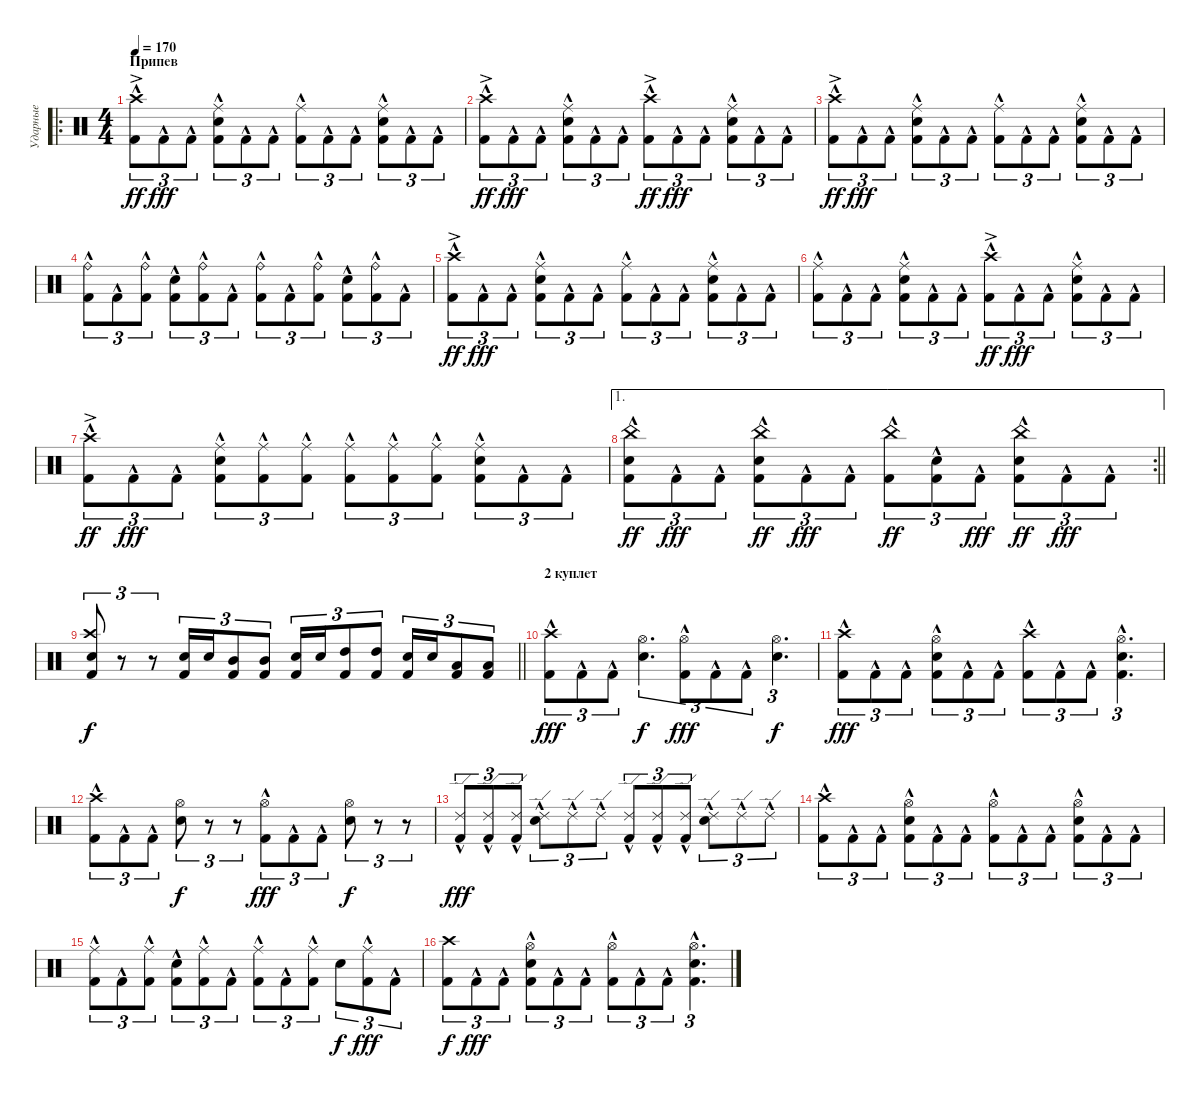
\track ("Ударные" "Ударные") {instrument percussion}
\staff {score}
\articulation defaults
\ro
\ts (4 4)
\section ("" "Припев")
\tempo 170
\clef neutral
\ks c
("Kick (hit) 2"{hac} "Crash high (hit)"{ac}).8{tu (3 2) dy ff} "Kick (hit) 2"{hac}.8{tu (3 2) dy fff} "Kick (hit) 2"{hac}.8{tu (3 2)} ("Kick (hit) 2"{hac} "Snare (hit) 2" "Ride (middle)"{hac}).8{tu (3 2)} "Kick (hit) 2"{hac}.8{tu (3 2)} "Kick (hit) 2"{hac}.8{tu (3 2)} ("Kick (hit) 2"{hac} "Ride (middle)"{hac}).8{tu (3 2)} "Kick (hit) 2"{hac}.8{tu (3 2)} "Kick (hit) 2"{hac}.8{tu (3 2)} ("Kick (hit) 2"{hac} "Snare (hit) 2" "Ride (middle)"{hac}).8{tu (3 2)} "Kick (hit) 2"{hac}.8{tu (3 2)} "Kick (hit) 2"{hac}.8{tu (3 2)} |
("Kick (hit) 2"{hac} "Crash high (hit)"{ac}).8{tu (3 2) dy ff} "Kick (hit) 2"{hac}.8{tu (3 2) dy fff} "Kick (hit) 2"{hac}.8{tu (3 2)} ("Kick (hit) 2"{hac} "Snare (hit) 2" "Ride (middle)"{hac}).8{tu (3 2)} "Kick (hit) 2"{hac}.8{tu (3 2)} "Kick (hit) 2"{hac}.8{tu (3 2)} ("Kick (hit) 2"{hac} "Crash high (hit)"{ac}).8{tu (3 2) dy ff} "Kick (hit) 2"{hac}.8{tu (3 2) dy fff} "Kick (hit) 2"{hac}.8{tu (3 2)} ("Kick (hit) 2"{hac} "Snare (hit) 2" "Ride (middle)"{hac}).8{tu (3 2)} "Kick (hit) 2"{hac}.8{tu (3 2)} "Kick (hit) 2"{hac}.8{tu (3 2)} |
("Kick (hit) 2"{hac} "Crash high (hit)"{ac}).8{tu (3 2) dy ff} "Kick (hit) 2"{hac}.8{tu (3 2) dy fff} "Kick (hit) 2"{hac}.8{tu (3 2)} ("Kick (hit) 2"{hac} "Snare (hit) 2" "Ride (middle)"{hac}).8{tu (3 2)} "Kick (hit) 2"{hac}.8{tu (3 2)} "Kick (hit) 2"{hac}.8{tu (3 2)} ("Kick (hit) 2"{hac} "Ride (middle)"{hac}).8{tu (3 2)} "Kick (hit) 2"{hac}.8{tu (3 2)} "Kick (hit) 2"{hac}.8{tu (3 2)} ("Kick (hit) 2"{hac} "Snare (hit) 2" "Ride (middle)"{hac}).8{tu (3 2)} "Kick (hit) 2"{hac}.8{tu (3 2)} "Kick (hit) 2"{hac}.8{tu (3 2)} |
("Kick (hit) 2"{hac} "Ride (bell)"{hac}).8{tu (3 2)} "Kick (hit) 2"{hac}.8{tu (3 2)} ("Kick (hit) 2"{hac} "Ride (bell)"{hac}).8{tu (3 2)} ("Kick (hit) 2"{hac} "Snare (hit) 2").8{tu (3 2)} ("Kick (hit) 2"{hac} "Ride (bell)"{hac}).8{tu (3 2)} "Kick (hit) 2"{hac}.8{tu (3 2)} ("Kick (hit) 2"{hac} "Ride (bell)"{hac}).8{tu (3 2)} "Kick (hit) 2"{hac}.8{tu (3 2)} ("Kick (hit) 2"{hac} "Ride (bell)"{hac}).8{tu (3 2)} ("Kick (hit) 2"{hac} "Snare (hit) 2").8{tu (3 2)} ("Kick (hit) 2"{hac} "Ride (bell)"{hac}).8{tu (3 2)} "Kick (hit) 2"{hac}.8{tu (3 2)} |
("Kick (hit) 2"{hac} "Crash high (hit)"{ac}).8{tu (3 2) dy ff} "Kick (hit) 2"{hac}.8{tu (3 2) dy fff} "Kick (hit) 2"{hac}.8{tu (3 2)} ("Kick (hit) 2"{hac} "Snare (hit) 2" "Ride (middle)"{hac}).8{tu (3 2)} "Kick (hit) 2"{hac}.8{tu (3 2)} "Kick (hit) 2"{hac}.8{tu (3 2)} ("Kick (hit) 2"{hac} "Ride (middle)"{hac}).8{tu (3 2)} "Kick (hit) 2"{hac}.8{tu (3 2)} "Kick (hit) 2"{hac}.8{tu (3 2)} ("Kick (hit) 2"{hac} "Snare (hit) 2" "Ride (middle)"{hac}).8{tu (3 2)} "Kick (hit) 2"{hac}.8{tu (3 2)} "Kick (hit) 2"{hac}.8{tu (3 2)} |
("Kick (hit) 2"{hac} "Ride (middle)"{hac}).8{tu (3 2)} "Kick (hit) 2"{hac}.8{tu (3 2)} "Kick (hit) 2"{hac}.8{tu (3 2)} ("Kick (hit) 2"{hac} "Snare (hit) 2" "Ride (middle)"{hac}).8{tu (3 2)} "Kick (hit) 2"{hac}.8{tu (3 2)} "Kick (hit) 2"{hac}.8{tu (3 2)} ("Kick (hit) 2"{hac} "Crash high (hit)"{ac}).8{tu (3 2) dy ff} "Kick (hit) 2"{hac}.8{tu (3 2) dy fff} "Kick (hit) 2"{hac}.8{tu (3 2)} ("Kick (hit) 2"{hac} "Snare (hit) 2" "Ride (middle)"{hac}).8{tu (3 2)} "Kick (hit) 2"{hac}.8{tu (3 2)} "Kick (hit) 2"{hac}.8{tu (3 2)} |
("Kick (hit) 2"{hac} "Crash high (hit)"{ac}).8{tu (3 2) dy ff} "Kick (hit) 2"{hac}.8{tu (3 2) dy fff} "Kick (hit) 2"{hac}.8{tu (3 2)} ("Kick (hit) 2"{hac} "Snare (hit) 2" "Ride (middle)"{hac}).8{tu (3 2)} ("Kick (hit) 2"{hac} "Ride (middle)"{hac}).8{tu (3 2)} ("Kick (hit) 2"{hac} "Ride (middle)"{hac}).8{tu (3 2)} ("Kick (hit) 2"{hac} "Ride (middle)"{hac}).8{tu (3 2)} ("Kick (hit) 2"{hac} "Ride (middle)"{hac}).8{tu (3 2)} ("Kick (hit) 2"{hac} "Ride (middle)"{hac}).8{tu (3 2)} ("Kick (hit) 2"{hac} "Snare (hit) 2" "Ride (middle)"{hac}).8{tu (3 2)} "Kick (hit) 2"{hac}.8{tu (3 2)} "Kick (hit) 2"{hac}.8{tu (3 2)} |
\ae 1
\rc 2
\barLineRight lightlight
("Kick (hit) 2"{hac} "Snare (hit) 2" "China (hit)").8{tu (3 2) dy ff} "Kick (hit) 2"{hac}.8{tu (3 2) dy fff} "Kick (hit) 2"{hac}.8{tu (3 2)} ("Kick (hit) 2"{hac} "Snare (hit) 2" "China (hit)").8{tu (3 2) dy ff} "Kick (hit) 2"{hac}.8{tu (3 2) dy fff} "Kick (hit) 2"{hac}.8{tu (3 2)} ("Kick (hit) 2"{hac} "China (hit)").8{tu (3 2) dy ff} ("Kick (hit) 2"{hac} "Snare (hit) 2").8{tu (3 2)} "Kick (hit) 2"{hac}.8{tu (3 2) dy fff} ("Kick (hit) 2"{hac} "Snare (hit) 2" "China (hit)").8{tu (3 2) dy ff} "Kick (hit) 2"{hac}.8{tu (3 2) dy fff} "Kick (hit) 2"{hac}.8{tu (3 2)} |
\barLineRight lightlight
("Kick (hit) 2" "Snare (hit) 2" "Crash high (hit)").8{tu (3 2) dy f} r.8{tu (3 2)} r.8{tu (3 2)} ("Electric Snare (hit)" "Kick (hit) 2").16{tu (3 2)} "Electric Snare (hit)".16{tu (3 2)} ("Mid Tom (hit)" "Kick (hit) 2").8{tu (3 2)} ("Mid Tom (hit)" "Kick (hit) 2").8{tu (3 2)} ("Electric Snare (hit)" "Kick (hit) 2").16{tu (3 2)} "Electric Snare (hit)".16{tu (3 2)} ("High Tom (hit)" "Kick (hit) 2").8{tu (3 2)} ("High Tom (hit)" "Kick (hit) 2").8{tu (3 2)} ("Electric Snare (hit)" "Kick (hit) 2").16{tu (3 2)} "Electric Snare (hit)".16{tu (3 2)} ("Low Tom (hit)" "Kick (hit) 2").8{tu (3 2)} ("Low Tom (hit)" "Kick (hit) 2").8{tu (3 2)} |
\section ("" "2 куплет")
("Kick (hit) 2"{hac} "Crash high (hit)").8{tu (3 2) dy fff} "Kick (hit) 2"{hac}.8{tu (3 2)} "Kick (hit) 2"{hac}.8{tu (3 2)} ("Snare (hit) 2" "Hi-Hat (open)").4{d tu (3 2) dy f} ("Kick (hit) 2"{hac} "Hi-Hat (open)").8{tu (3 2) dy fff} "Kick (hit) 2"{hac}.8{tu (3 2)} "Kick (hit) 2"{hac}.8{tu (3 2)} ("Snare (hit) 2" "Hi-Hat (open)").4{d tu (3 2) dy f} |
("Kick (hit) 2"{hac} "Crash high (hit)").8{tu (3 2) dy fff} "Kick (hit) 2"{hac}.8{tu (3 2)} "Kick (hit) 2"{hac}.8{tu (3 2)} ("Kick (hit) 2"{hac} "Snare (hit) 2" "Hi-Hat (open)").8{tu (3 2)} "Kick (hit) 2"{hac}.8{tu (3 2)} "Kick (hit) 2"{hac}.8{tu (3 2)} ("Kick (hit) 2"{hac} "Crash high (hit)").8{tu (3 2)} "Kick (hit) 2"{hac}.8{tu (3 2)} "Kick (hit) 2"{hac}.8{tu (3 2)} ("Kick (hit) 2"{hac} "Snare (hit) 2" "Hi-Hat (open)").4{d tu (3 2)} |
("Kick (hit) 2"{hac} "Crash high (hit)").8{tu (3 2)} "Kick (hit) 2"{hac}.8{tu (3 2)} "Kick (hit) 2"{hac}.8{tu (3 2)} ("Snare (hit) 2" "Hi-Hat (open)").8{tu (3 2) dy f} r.8{tu (3 2)} r.8{tu (3 2)} ("Kick (hit) 2"{hac} "Hi-Hat (open)").8{tu (3 2) dy fff} "Kick (hit) 2"{hac}.8{tu (3 2)} "Kick (hit) 2"{hac}.8{tu (3 2)} ("Snare (hit) 2" "Hi-Hat (open)").8{tu (3 2) dy f} r.8{tu (3 2)} r.8{tu (3 2)} |
("Kick (hit) 2"{hac} "Ride (edge) 2"{hac}).8{tu (3 2) dy fff} ("Kick (hit) 2"{hac} "Ride (edge) 2"{hac}).8{tu (3 2)} ("Kick (hit) 2"{hac} "Ride (edge) 2"{hac}).8{tu (3 2)} ("Ride (edge) 2"{hac} "Snare (hit) 2").8{tu (3 2)} "Ride (edge) 2"{hac}.8{tu (3 2)} "Ride (edge) 2"{hac}.8{tu (3 2)} ("Kick (hit) 2"{hac} "Ride (edge) 2"{hac}).8{tu (3 2)} ("Kick (hit) 2"{hac} "Ride (edge) 2"{hac}).8{tu (3 2)} ("Kick (hit) 2"{hac} "Ride (edge) 2"{hac}).8{tu (3 2)} ("Ride (edge) 2"{hac} "Snare (hit) 2").8{tu (3 2)} "Ride (edge) 2"{hac}.8{tu (3 2)} "Ride (edge) 2"{hac}.8{tu (3 2)} |
("Kick (hit) 2"{hac} "Crash high (hit)").8{tu (3 2)} "Kick (hit) 2"{hac}.8{tu (3 2)} "Kick (hit) 2"{hac}.8{tu (3 2)} ("Kick (hit) 2"{hac} "Snare (hit) 2" "Hi-Hat (open)").8{tu (3 2)} "Kick (hit) 2"{hac}.8{tu (3 2)} "Kick (hit) 2"{hac}.8{tu (3 2)} ("Kick (hit) 2"{hac} "Hi-Hat (open)").8{tu (3 2)} "Kick (hit) 2"{hac}.8{tu (3 2)} "Kick (hit) 2"{hac}.8{tu (3 2)} ("Kick (hit) 2"{hac} "Snare (hit) 2" "Hi-Hat (open)").8{tu (3 2)} "Kick (hit) 2"{hac}.8{tu (3 2)} "Kick (hit) 2"{hac}.8{tu (3 2)} |
("Kick (hit) 2"{hac} "Ride (middle)"{hac}).8{tu (3 2)} "Kick (hit) 2"{hac}.8{tu (3 2)} ("Ride (middle)"{hac} "Kick (hit) 2"{hac}).8{tu (3 2)} ("Kick (hit) 2"{hac} "Snare (hit) 2").8{tu (3 2)} ("Ride (middle)"{hac} "Kick (hit) 2"{hac}).8{tu (3 2)} "Kick (hit) 2"{hac}.8{tu (3 2)} ("Kick (hit) 2"{hac} "Ride (middle)"{hac}).8{tu (3 2)} "Kick (hit) 2"{hac}.8{tu (3 2)} ("Ride (middle)"{hac} "Kick (hit) 2"{hac}).8{tu (3 2)} "Snare (hit) 2".8{tu (3 2) dy f} ("Ride (middle)"{hac} "Kick (hit) 2"{hac}).8{tu (3 2) dy fff} "Kick (hit) 2"{hac}.8{tu (3 2)} |
("Kick (hit) 2" "Crash high (hit)").8{tu (3 2) dy f} "Kick (hit) 2"{hac}.8{tu (3 2) dy fff} "Kick (hit) 2"{hac}.8{tu (3 2)} ("Kick (hit) 2"{hac} "Snare (hit) 2" "Hi-Hat (open)").8{tu (3 2)} "Kick (hit) 2"{hac}.8{tu (3 2)} "Kick (hit) 2"{hac}.8{tu (3 2)} ("Kick (hit) 2"{hac} "Hi-Hat (open)").8{tu (3 2)} "Kick (hit) 2"{hac}.8{tu (3 2)} "Kick (hit) 2"{hac}.8{tu (3 2)} ("Kick (hit) 2"{hac} "Snare (hit) 2" "Hi-Hat (open)").4{d tu (3 2)}
